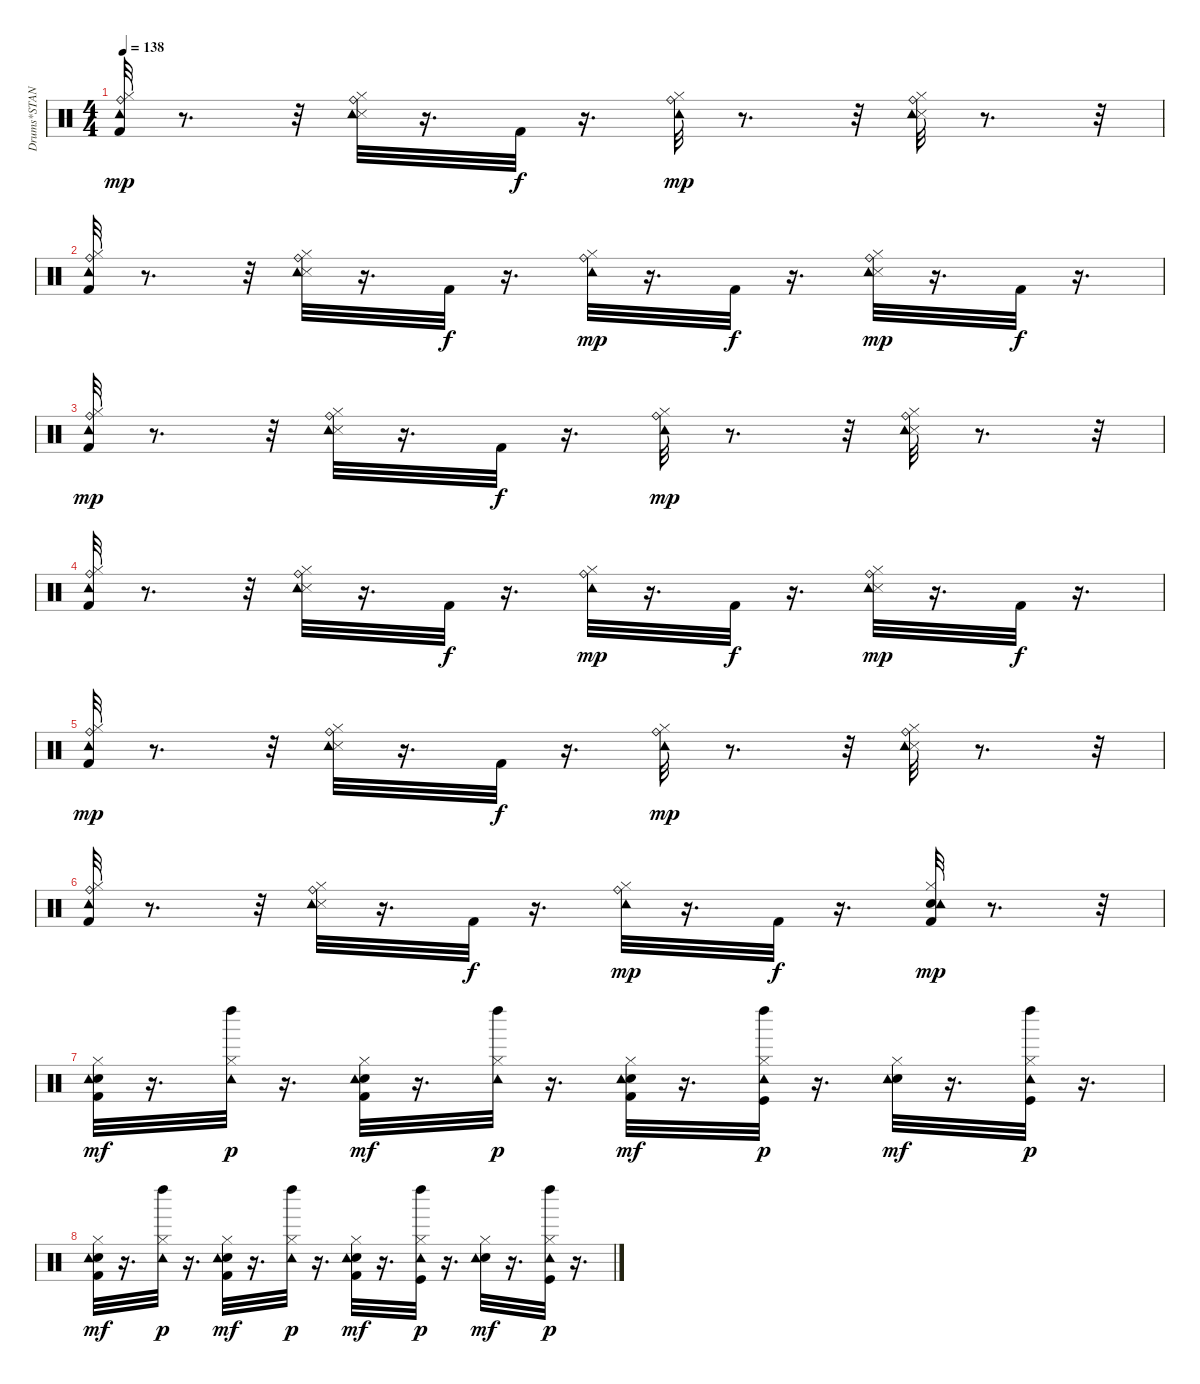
\track ("Drums*STANDARD      " "Drums*STAN") {instrument percussion}
\staff {score}
\articulation defaults
\ts (4 4)
\tempo 138
\clef neutral
\ks c
("Kick (hit) 2" "Hi-Hat (closed)" "Ride (bell)" "Tambourine (hit)").32{dy mp} r.8{d} r.32 ("Hi-Hat (closed)" "Snare (side stick) 3" "Ride (bell)" "Tambourine (hit)").32 r.16{d} "Kick (hit) 2".32{dy f} r.16{d} ("Hi-Hat (closed)" "Ride (bell)" "Tambourine (hit)").32{dy mp} r.8{d} r.32 ("Hi-Hat (closed)" "Snare (side stick) 3" "Ride (bell)" "Tambourine (hit)").32 r.8{d} r.32 |
("Kick (hit) 2" "Hi-Hat (closed)" "Ride (bell)" "Tambourine (hit)").32 r.8{d} r.32 ("Hi-Hat (closed)" "Snare (side stick) 3" "Ride (bell)" "Tambourine (hit)").32 r.16{d} "Kick (hit) 2".32{dy f} r.16{d} ("Hi-Hat (closed)" "Ride (bell)" "Tambourine (hit)").32{dy mp} r.16{d} "Kick (hit) 2".32{dy f} r.16{d} ("Hi-Hat (closed)" "Snare (side stick) 3" "Ride (bell)" "Tambourine (hit)").32{dy mp} r.16{d} "Kick (hit) 2".32{dy f} r.16{d} |
("Kick (hit) 2" "Hi-Hat (closed)" "Ride (bell)" "Tambourine (hit)").32{dy mp} r.8{d} r.32 ("Hi-Hat (closed)" "Snare (side stick) 3" "Ride (bell)" "Tambourine (hit)").32 r.16{d} "Kick (hit) 2".32{dy f} r.16{d} ("Hi-Hat (closed)" "Ride (bell)" "Tambourine (hit)").32{dy mp} r.8{d} r.32 ("Hi-Hat (closed)" "Snare (side stick) 3" "Ride (bell)" "Tambourine (hit)").32 r.8{d} r.32 |
("Kick (hit) 2" "Hi-Hat (closed)" "Ride (bell)" "Tambourine (hit)").32 r.8{d} r.32 ("Hi-Hat (closed)" "Snare (side stick) 3" "Ride (bell)" "Tambourine (hit)").32 r.16{d} "Kick (hit) 2".32{dy f} r.16{d} ("Hi-Hat (closed)" "Ride (bell)" "Tambourine (hit)").32{dy mp} r.16{d} "Kick (hit) 2".32{dy f} r.16{d} ("Hi-Hat (closed)" "Snare (side stick) 3" "Ride (bell)" "Tambourine (hit)").32{dy mp} r.16{d} "Kick (hit) 2".32{dy f} r.16{d} |
("Kick (hit) 2" "Hi-Hat (closed)" "Ride (bell)" "Tambourine (hit)").32{dy mp} r.8{d} r.32 ("Hi-Hat (closed)" "Snare (side stick) 3" "Ride (bell)" "Tambourine (hit)").32 r.16{d} "Kick (hit) 2".32{dy f} r.16{d} ("Hi-Hat (closed)" "Ride (bell)" "Tambourine (hit)").32{dy mp} r.8{d} r.32 ("Hi-Hat (closed)" "Snare (side stick) 3" "Ride (bell)" "Tambourine (hit)").32 r.8{d} r.32 |
("Kick (hit) 2" "Hi-Hat (closed)" "Ride (bell)" "Tambourine (hit)").32 r.8{d} r.32 ("Hi-Hat (closed)" "Snare (side stick) 3" "Ride (bell)" "Tambourine (hit)").32 r.16{d} "Kick (hit) 2".32{dy f} r.16{d} ("Hi-Hat (closed)" "Ride (bell)" "Tambourine (hit)").32{dy mp} r.16{d} "Kick (hit) 2".32{dy f} r.16{d} ("Kick (hit) 2" "Snare (hit) 2" "Hi-Hat (closed)" "Tambourine (hit)").32{dy mp} r.8{d} r.32 |
("Kick (hit) 2" "Hi-Hat (closed)" "Electric Snare (hit)" "Tambourine (hit)").32{dy mf} r.16{d} ("Hi-Hat (closed)" "Left Maraca (hit)" "Tambourine (hit)").32{dy p} r.16{d} ("Kick (hit) 2" "Hi-Hat (closed)" "Electric Snare (hit)" "Tambourine (hit)").32{dy mf} r.16{d} ("Hi-Hat (closed)" "Left Maraca (hit)" "Tambourine (hit)").32{dy p} r.16{d} ("Kick (hit) 2" "Hi-Hat (closed)" "Electric Snare (hit)" "Tambourine (hit)").32{dy mf} r.16{d} ("Hi-Hat (closed)" "Left Maraca (hit)" "Kick (hit)" "Tambourine (hit)").32{dy p} r.16{d} ("Hi-Hat (closed)" "Electric Snare (hit)" "Tambourine (hit)").32{dy mf} r.16{d} ("Hi-Hat (closed)" "Left Maraca (hit)" "Kick (hit)" "Tambourine (hit)").32{dy p} r.16{d} |
("Kick (hit) 2" "Hi-Hat (closed)" "Electric Snare (hit)" "Tambourine (hit)").32{dy mf} r.16{d} ("Hi-Hat (closed)" "Left Maraca (hit)" "Tambourine (hit)").32{dy p} r.16{d} ("Kick (hit) 2" "Hi-Hat (closed)" "Electric Snare (hit)" "Tambourine (hit)").32{dy mf} r.16{d} ("Hi-Hat (closed)" "Left Maraca (hit)" "Tambourine (hit)").32{dy p} r.16{d} ("Kick (hit) 2" "Hi-Hat (closed)" "Electric Snare (hit)" "Tambourine (hit)").32{dy mf} r.16{d} ("Hi-Hat (closed)" "Left Maraca (hit)" "Kick (hit)" "Tambourine (hit)").32{dy p} r.16{d} ("Hi-Hat (closed)" "Electric Snare (hit)" "Tambourine (hit)").32{dy mf} r.16{d} ("Hi-Hat (closed)" "Left Maraca (hit)" "Kick (hit)" "Tambourine (hit)").32{dy p} r.16{d}
